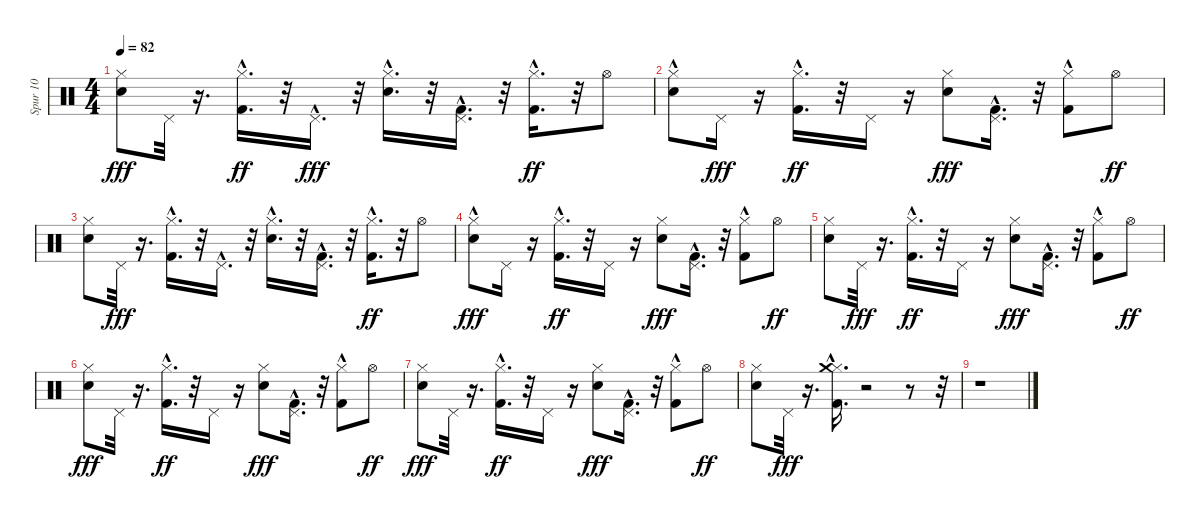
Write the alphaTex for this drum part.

\track ("Spur 10" "Spur 10") {instrument percussion}
\staff {score}
\articulation defaults
\ts (4 4)
\tempo 82
\clef neutral
\ks c
("Hi-Hat (closed)" "Electric Snare (hit)").8{dy fff} "Pedal Hi-Hat (hit)".32 r.16{d} ("Kick (hit) 2"{hac} "Hi-Hat (closed)"{hac}).16{d dy ff} r.32 "Pedal Hi-Hat (hit)"{hac}.16{d dy fff} r.32 ("Hi-Hat (closed)"{hac} "Electric Snare (hit)").16{d} r.32 ("Kick (hit) 2" "Pedal Hi-Hat (hit)"{hac}).16{d} r.32 ("Kick (hit) 2"{hac} "Hi-Hat (closed)"{hac}).16{d dy ff} r.32 "Hi-Hat (open)".8 |
("Electric Snare (hit)"{hac} "Hi-Hat (closed)").8 "Pedal Hi-Hat (hit)".16{dy fff} r.16 ("Kick (hit) 2"{hac} "Hi-Hat (closed)"{hac}).16{d dy ff} r.32 "Pedal Hi-Hat (hit)".16 r.16 ("Electric Snare (hit)" "Hi-Hat (closed)").8{dy fff} ("Kick (hit) 2" "Pedal Hi-Hat (hit)"{hac}).16{d} r.32 ("Hi-Hat (closed)" "Kick (hit) 2"{hac}).8 "Hi-Hat (open)".8{dy ff} |
("Electric Snare (hit)" "Hi-Hat (closed)").8 "Pedal Hi-Hat (hit)".32{dy fff} r.16{d} ("Hi-Hat (closed)"{hac} "Kick (hit) 2"{hac}).16{d} r.32 "Pedal Hi-Hat (hit)"{hac}.16{d} r.32 ("Hi-Hat (closed)"{hac} "Electric Snare (hit)").16{d} r.32 ("Kick (hit) 2" "Pedal Hi-Hat (hit)"{hac}).16{d} r.32 ("Kick (hit) 2"{hac} "Hi-Hat (closed)"{hac}).16{d dy ff} r.32 "Hi-Hat (open)".8 |
("Hi-Hat (closed)" "Electric Snare (hit)"{hac}).8{dy fff} "Pedal Hi-Hat (hit)".16 r.16 ("Kick (hit) 2"{hac} "Hi-Hat (closed)"{hac}).16{d dy ff} r.32 "Pedal Hi-Hat (hit)".16 r.16 ("Electric Snare (hit)" "Hi-Hat (closed)").8{dy fff} ("Kick (hit) 2" "Pedal Hi-Hat (hit)"{hac}).16{d} r.32 ("Hi-Hat (closed)" "Kick (hit) 2"{hac}).8 "Hi-Hat (open)".8{dy ff} |
("Electric Snare (hit)" "Hi-Hat (closed)").8 "Pedal Hi-Hat (hit)".32{dy fff} r.16{d} ("Kick (hit) 2"{hac} "Hi-Hat (closed)"{hac}).16{d dy ff} r.32 "Pedal Hi-Hat (hit)".16 r.16 ("Electric Snare (hit)" "Hi-Hat (closed)").8{dy fff} ("Pedal Hi-Hat (hit)"{hac} "Kick (hit) 2").16{d} r.32 ("Hi-Hat (closed)" "Kick (hit) 2"{hac}).8 "Hi-Hat (open)".8{dy ff} |
("Hi-Hat (closed)" "Electric Snare (hit)").8{dy fff} "Pedal Hi-Hat (hit)".32 r.16{d} ("Kick (hit) 2"{hac} "Hi-Hat (closed)"{hac}).16{d dy ff} r.32 "Pedal Hi-Hat (hit)".16 r.16 ("Electric Snare (hit)" "Hi-Hat (closed)").8{dy fff} ("Pedal Hi-Hat (hit)"{hac} "Kick (hit) 2").16{d} r.32 ("Hi-Hat (closed)" "Kick (hit) 2"{hac}).8 "Hi-Hat (open)".8{dy ff} |
("Hi-Hat (closed)" "Electric Snare (hit)").8{dy fff} "Pedal Hi-Hat (hit)".32 r.16{d} ("Kick (hit) 2"{hac} "Hi-Hat (closed)"{hac}).16{d dy ff} r.32 "Pedal Hi-Hat (hit)".16 r.16 ("Hi-Hat (closed)" "Electric Snare (hit)").8{dy fff} ("Kick (hit) 2" "Pedal Hi-Hat (hit)"{hac}).16{d} r.32 ("Hi-Hat (closed)" "Kick (hit) 2"{hac}).8 "Hi-Hat (open)".8{dy ff} |
("Electric Snare (hit)" "Hi-Hat (closed)").8 "Pedal Hi-Hat (hit)".32{dy fff} r.16{d} ("Hi-Hat (closed)"{hac} "Crash medium (hit)" "Kick (hit) 2"{hac}).16{d} r.2 r.8 r.32 |
r.1
